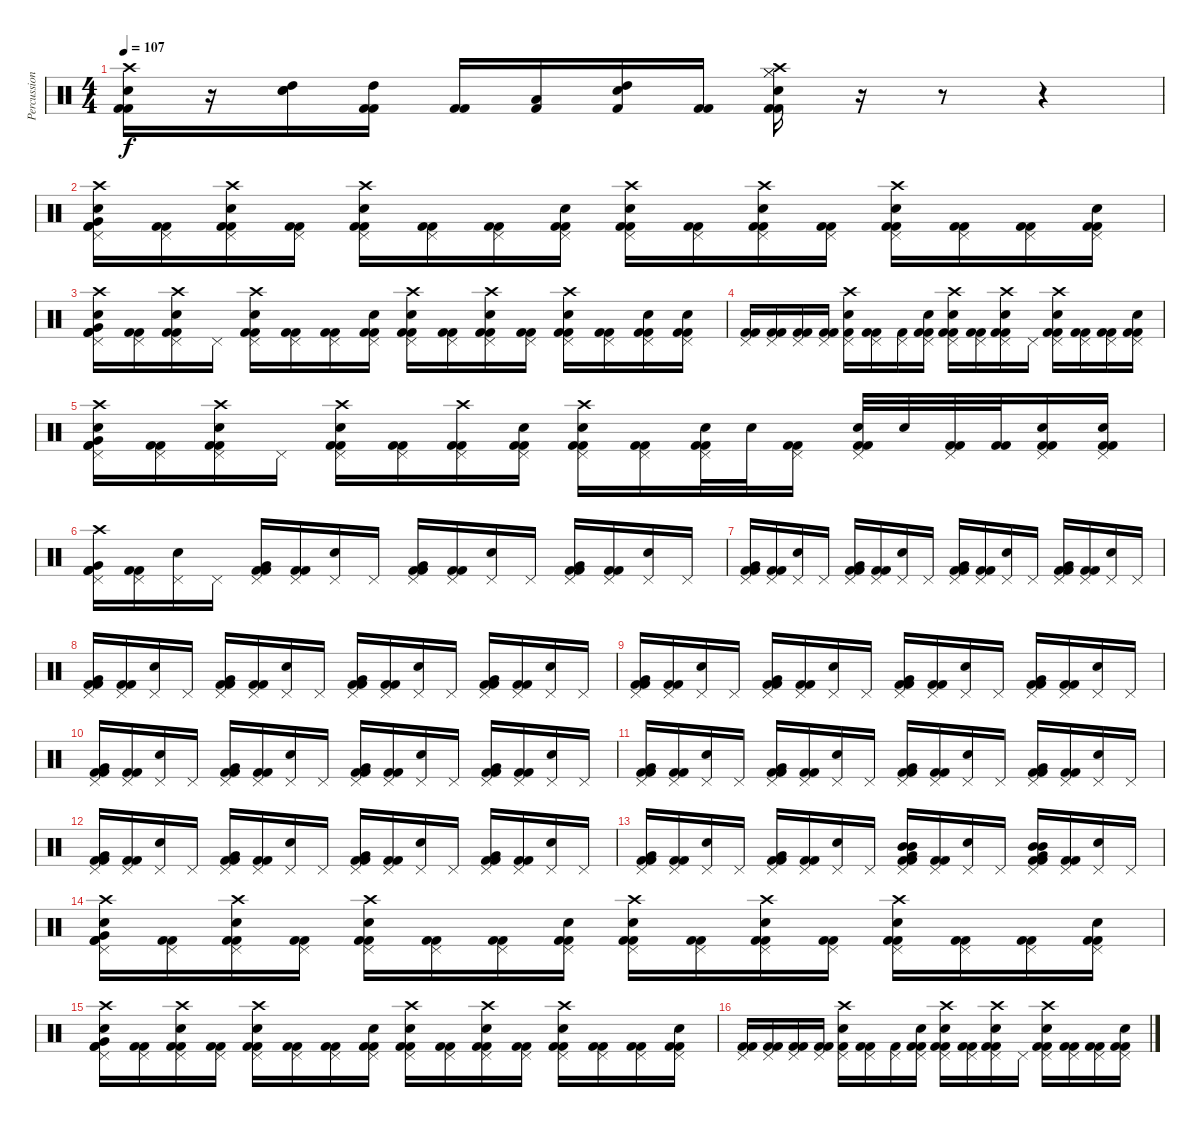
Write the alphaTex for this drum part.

\track ("Percussion" "Percussion") {instrument percussion}
\staff {score}
\articulation defaults
\ts (4 4)
\tempo 107
\clef neutral
\ks c
("Crash high (hit)" "Electric Snare (hit)" "Kick (hit) 2" "Kick (hit) 2").16{dy f} r.16 ("High Tom (hit)" "Electric Snare (hit)" "Electric Snare (hit)").16 ("High Tom (hit)" "Kick (hit) 2" "Kick (hit) 2").16 ("Kick (hit) 2" "Kick (hit) 2").16 ("Low Tom (hit)" "Kick (hit) 2").16 ("High Tom (hit)" "Electric Snare (hit)" "Kick (hit) 2").16 ("Kick (hit) 2" "Kick (hit) 2").16 ("Hi-Hat (closed)" "Hi-Hat (closed)" "Crash high (hit)" "Kick (hit) 2" "Electric Snare (hit)" "Kick (hit) 2").16 r.16 r.8 r.4 |
("Pedal Hi-Hat (hit)" "Crash high (hit)" "Very Low Tom (hit)" "Electric Snare (hit)" "Kick (hit) 2" "Kick (hit) 2").16 ("Pedal Hi-Hat (hit)" "Kick (hit) 2" "Kick (hit) 2").16 ("Pedal Hi-Hat (hit)" "Crash high (hit)" "Electric Snare (hit)" "Kick (hit) 2" "Kick (hit) 2").16 ("Pedal Hi-Hat (hit)" "Kick (hit) 2" "Kick (hit) 2").16 ("Pedal Hi-Hat (hit)" "Crash high (hit)" "Electric Snare (hit)" "Kick (hit) 2" "Kick (hit) 2").16 ("Pedal Hi-Hat (hit)" "Kick (hit) 2" "Kick (hit) 2").16 ("Pedal Hi-Hat (hit)" "Kick (hit) 2" "Kick (hit) 2").16 ("Pedal Hi-Hat (hit)" "Electric Snare (hit)" "Kick (hit) 2" "Kick (hit) 2").16 ("Pedal Hi-Hat (hit)" "Crash high (hit)" "Electric Snare (hit)" "Kick (hit) 2" "Kick (hit) 2").16 ("Pedal Hi-Hat (hit)" "Kick (hit) 2" "Kick (hit) 2").16 ("Pedal Hi-Hat (hit)" "Crash high (hit)" "Electric Snare (hit)" "Kick (hit) 2" "Kick (hit) 2").16 ("Pedal Hi-Hat (hit)" "Kick (hit) 2" "Kick (hit) 2").16 ("Pedal Hi-Hat (hit)" "Crash high (hit)" "Electric Snare (hit)" "Kick (hit) 2" "Kick (hit) 2").16 ("Pedal Hi-Hat (hit)" "Kick (hit) 2" "Kick (hit) 2").16 ("Pedal Hi-Hat (hit)" "Kick (hit) 2" "Kick (hit) 2").16 ("Pedal Hi-Hat (hit)" "Electric Snare (hit)" "Kick (hit) 2" "Kick (hit) 2").16 |
("Pedal Hi-Hat (hit)" "Crash high (hit)" "Very Low Tom (hit)" "Electric Snare (hit)" "Kick (hit) 2" "Kick (hit) 2").16 ("Pedal Hi-Hat (hit)" "Kick (hit) 2" "Kick (hit) 2").16 ("Pedal Hi-Hat (hit)" "Crash high (hit)" "Electric Snare (hit)" "Kick (hit) 2" "Kick (hit) 2").16 "Pedal Hi-Hat (hit)".16 ("Pedal Hi-Hat (hit)" "Crash high (hit)" "Electric Snare (hit)" "Kick (hit) 2" "Kick (hit) 2").16 ("Pedal Hi-Hat (hit)" "Kick (hit) 2" "Kick (hit) 2").16 ("Pedal Hi-Hat (hit)" "Kick (hit) 2" "Kick (hit) 2").16 ("Pedal Hi-Hat (hit)" "Electric Snare (hit)" "Kick (hit) 2" "Kick (hit) 2").16 ("Pedal Hi-Hat (hit)" "Crash high (hit)" "Electric Snare (hit)" "Kick (hit) 2" "Kick (hit) 2").16 ("Pedal Hi-Hat (hit)" "Kick (hit) 2" "Kick (hit) 2").16 ("Pedal Hi-Hat (hit)" "Crash high (hit)" "Electric Snare (hit)" "Kick (hit) 2" "Kick (hit) 2").16 ("Pedal Hi-Hat (hit)" "Kick (hit) 2" "Kick (hit) 2").16 ("Pedal Hi-Hat (hit)" "Crash high (hit)" "Electric Snare (hit)" "Kick (hit) 2" "Kick (hit) 2").16 ("Pedal Hi-Hat (hit)" "Kick (hit) 2" "Kick (hit) 2").16 ("Pedal Hi-Hat (hit)" "Electric Snare (hit)" "Kick (hit) 2" "Kick (hit) 2").16 ("Pedal Hi-Hat (hit)" "Electric Snare (hit)" "Kick (hit) 2" "Kick (hit) 2").16 |
("Pedal Hi-Hat (hit)" "Kick (hit) 2" "Kick (hit) 2").16 ("Pedal Hi-Hat (hit)" "Kick (hit) 2" "Kick (hit) 2").16 ("Pedal Hi-Hat (hit)" "Kick (hit) 2" "Kick (hit) 2").16 ("Pedal Hi-Hat (hit)" "Kick (hit) 2" "Kick (hit) 2").16 ("Pedal Hi-Hat (hit)" "Crash high (hit)" "Electric Snare (hit)" "Kick (hit) 2").16 ("Pedal Hi-Hat (hit)" "Kick (hit) 2" "Kick (hit) 2").16 ("Pedal Hi-Hat (hit)" "Kick (hit) 2").16 ("Pedal Hi-Hat (hit)" "Electric Snare (hit)" "Kick (hit) 2" "Kick (hit) 2").16 ("Pedal Hi-Hat (hit)" "Crash high (hit)" "Electric Snare (hit)" "Kick (hit) 2" "Kick (hit) 2").16 ("Pedal Hi-Hat (hit)" "Kick (hit) 2" "Kick (hit) 2").16 ("Pedal Hi-Hat (hit)" "Crash high (hit)" "Kick (hit) 2" "Electric Snare (hit)" "Kick (hit) 2").16 "Pedal Hi-Hat (hit)".16 ("Pedal Hi-Hat (hit)" "Crash high (hit)" "Kick (hit) 2" "Electric Snare (hit)" "Kick (hit) 2").16 ("Pedal Hi-Hat (hit)" "Kick (hit) 2" "Kick (hit) 2").16 ("Pedal Hi-Hat (hit)" "Kick (hit) 2" "Kick (hit) 2").16 ("Pedal Hi-Hat (hit)" "Kick (hit) 2" "Electric Snare (hit)" "Kick (hit) 2").16 |
("Pedal Hi-Hat (hit)" "Crash high (hit)" "Very Low Tom (hit)" "Electric Snare (hit)" "Kick (hit) 2" "Kick (hit) 2").16 ("Pedal Hi-Hat (hit)" "Kick (hit) 2" "Kick (hit) 2").16 ("Pedal Hi-Hat (hit)" "Crash high (hit)" "Electric Snare (hit)" "Kick (hit) 2" "Kick (hit) 2").16 "Pedal Hi-Hat (hit)".16 ("Pedal Hi-Hat (hit)" "Crash high (hit)" "Electric Snare (hit)" "Kick (hit) 2" "Kick (hit) 2").16 ("Pedal Hi-Hat (hit)" "Kick (hit) 2" "Kick (hit) 2").16 ("Pedal Hi-Hat (hit)" "Crash high (hit)" "Kick (hit) 2" "Kick (hit) 2").16 ("Pedal Hi-Hat (hit)" "Electric Snare (hit)" "Kick (hit) 2" "Kick (hit) 2").16 ("Pedal Hi-Hat (hit)" "Crash high (hit)" "Electric Snare (hit)" "Kick (hit) 2" "Kick (hit) 2").16 ("Pedal Hi-Hat (hit)" "Kick (hit) 2" "Kick (hit) 2").16 ("Pedal Hi-Hat (hit)" "Electric Snare (hit)" "Kick (hit) 2" "Kick (hit) 2").32 "Electric Snare (hit)".32 ("Pedal Hi-Hat (hit)" "Kick (hit) 2" "Kick (hit) 2").16 ("Pedal Hi-Hat (hit)" "Electric Snare (hit)" "Kick (hit) 2" "Kick (hit) 2").32 "Electric Snare (hit)".32 ("Pedal Hi-Hat (hit)" "Kick (hit) 2" "Kick (hit) 2").32 ("Kick (hit) 2" "Kick (hit) 2").32 ("Pedal Hi-Hat (hit)" "Electric Snare (hit)" "Kick (hit) 2" "Kick (hit) 2").16 ("Pedal Hi-Hat (hit)" "Electric Snare (hit)" "Kick (hit) 2" "Kick (hit) 2").16 |
("Pedal Hi-Hat (hit)" "Crash high (hit)" "Very Low Tom (hit)" "Kick (hit) 2" "Kick (hit) 2").16 ("Pedal Hi-Hat (hit)" "Kick (hit) 2" "Kick (hit) 2").16 ("Pedal Hi-Hat (hit)" "Electric Snare (hit)").16 "Pedal Hi-Hat (hit)".16 ("Pedal Hi-Hat (hit)" "Very Low Tom (hit)" "Kick (hit) 2" "Kick (hit) 2").16 ("Pedal Hi-Hat (hit)" "Kick (hit) 2" "Kick (hit) 2").16 ("Pedal Hi-Hat (hit)" "Electric Snare (hit)").16 "Pedal Hi-Hat (hit)".16 ("Pedal Hi-Hat (hit)" "Very Low Tom (hit)" "Kick (hit) 2" "Kick (hit) 2").16 ("Pedal Hi-Hat (hit)" "Kick (hit) 2" "Kick (hit) 2").16 ("Pedal Hi-Hat (hit)" "Electric Snare (hit)").16 "Pedal Hi-Hat (hit)".16 ("Pedal Hi-Hat (hit)" "Very Low Tom (hit)" "Kick (hit) 2" "Kick (hit) 2").16 ("Pedal Hi-Hat (hit)" "Kick (hit) 2" "Kick (hit) 2").16 ("Pedal Hi-Hat (hit)" "Electric Snare (hit)").16 "Pedal Hi-Hat (hit)".16 |
("Pedal Hi-Hat (hit)" "Very Low Tom (hit)" "Kick (hit) 2" "Kick (hit) 2").16 ("Pedal Hi-Hat (hit)" "Kick (hit) 2" "Kick (hit) 2").16 ("Pedal Hi-Hat (hit)" "Electric Snare (hit)").16 "Pedal Hi-Hat (hit)".16 ("Pedal Hi-Hat (hit)" "Very Low Tom (hit)" "Kick (hit) 2" "Kick (hit) 2").16 ("Pedal Hi-Hat (hit)" "Kick (hit) 2" "Kick (hit) 2").16 ("Pedal Hi-Hat (hit)" "Electric Snare (hit)").16 "Pedal Hi-Hat (hit)".16 ("Pedal Hi-Hat (hit)" "Very Low Tom (hit)" "Kick (hit) 2" "Kick (hit) 2").16 ("Pedal Hi-Hat (hit)" "Kick (hit) 2" "Kick (hit) 2").16 ("Pedal Hi-Hat (hit)" "Electric Snare (hit)").16 "Pedal Hi-Hat (hit)".16 ("Pedal Hi-Hat (hit)" "Very Low Tom (hit)" "Kick (hit) 2" "Kick (hit) 2").16 ("Pedal Hi-Hat (hit)" "Kick (hit) 2" "Kick (hit) 2").16 ("Pedal Hi-Hat (hit)" "Electric Snare (hit)").16 "Pedal Hi-Hat (hit)".16 |
("Pedal Hi-Hat (hit)" "Very Low Tom (hit)" "Kick (hit) 2" "Kick (hit) 2").16 ("Pedal Hi-Hat (hit)" "Kick (hit) 2" "Kick (hit) 2").16 ("Pedal Hi-Hat (hit)" "Electric Snare (hit)").16 "Pedal Hi-Hat (hit)".16 ("Pedal Hi-Hat (hit)" "Very Low Tom (hit)" "Kick (hit) 2" "Kick (hit) 2").16 ("Pedal Hi-Hat (hit)" "Kick (hit) 2" "Kick (hit) 2").16 ("Pedal Hi-Hat (hit)" "Electric Snare (hit)").16 "Pedal Hi-Hat (hit)".16 ("Pedal Hi-Hat (hit)" "Very Low Tom (hit)" "Kick (hit) 2" "Kick (hit) 2").16 ("Pedal Hi-Hat (hit)" "Kick (hit) 2" "Kick (hit) 2").16 ("Pedal Hi-Hat (hit)" "Electric Snare (hit)").16 "Pedal Hi-Hat (hit)".16 ("Pedal Hi-Hat (hit)" "Very Low Tom (hit)" "Kick (hit) 2" "Kick (hit) 2").16 ("Pedal Hi-Hat (hit)" "Kick (hit) 2" "Kick (hit) 2").16 ("Pedal Hi-Hat (hit)" "Electric Snare (hit)").16 "Pedal Hi-Hat (hit)".16 |
("Pedal Hi-Hat (hit)" "Very Low Tom (hit)" "Kick (hit) 2" "Kick (hit) 2").16 ("Pedal Hi-Hat (hit)" "Kick (hit) 2" "Kick (hit) 2").16 ("Pedal Hi-Hat (hit)" "Electric Snare (hit)").16 "Pedal Hi-Hat (hit)".16 ("Pedal Hi-Hat (hit)" "Very Low Tom (hit)" "Kick (hit) 2" "Kick (hit) 2").16 ("Pedal Hi-Hat (hit)" "Kick (hit) 2" "Kick (hit) 2").16 ("Pedal Hi-Hat (hit)" "Electric Snare (hit)").16 "Pedal Hi-Hat (hit)".16 ("Pedal Hi-Hat (hit)" "Very Low Tom (hit)" "Kick (hit) 2" "Kick (hit) 2").16 ("Pedal Hi-Hat (hit)" "Kick (hit) 2" "Kick (hit) 2").16 ("Pedal Hi-Hat (hit)" "Electric Snare (hit)").16 "Pedal Hi-Hat (hit)".16 ("Pedal Hi-Hat (hit)" "Very Low Tom (hit)" "Kick (hit) 2" "Kick (hit) 2").16 ("Pedal Hi-Hat (hit)" "Kick (hit) 2" "Kick (hit) 2").16 ("Pedal Hi-Hat (hit)" "Electric Snare (hit)").16 "Pedal Hi-Hat (hit)".16 |
("Pedal Hi-Hat (hit)" "Very Low Tom (hit)" "Kick (hit) 2" "Kick (hit) 2").16 ("Pedal Hi-Hat (hit)" "Kick (hit) 2" "Kick (hit) 2").16 ("Pedal Hi-Hat (hit)" "Electric Snare (hit)").16 "Pedal Hi-Hat (hit)".16 ("Pedal Hi-Hat (hit)" "Very Low Tom (hit)" "Kick (hit) 2" "Kick (hit) 2").16 ("Pedal Hi-Hat (hit)" "Kick (hit) 2" "Kick (hit) 2").16 ("Pedal Hi-Hat (hit)" "Electric Snare (hit)").16 "Pedal Hi-Hat (hit)".16 ("Pedal Hi-Hat (hit)" "Very Low Tom (hit)" "Kick (hit) 2" "Kick (hit) 2").16 ("Pedal Hi-Hat (hit)" "Kick (hit) 2" "Kick (hit) 2").16 ("Pedal Hi-Hat (hit)" "Electric Snare (hit)").16 "Pedal Hi-Hat (hit)".16 ("Pedal Hi-Hat (hit)" "Very Low Tom (hit)" "Kick (hit) 2" "Kick (hit) 2").16 ("Pedal Hi-Hat (hit)" "Kick (hit) 2" "Kick (hit) 2").16 ("Pedal Hi-Hat (hit)" "Electric Snare (hit)").16 "Pedal Hi-Hat (hit)".16 |
("Pedal Hi-Hat (hit)" "Very Low Tom (hit)" "Kick (hit) 2" "Kick (hit) 2").16 ("Pedal Hi-Hat (hit)" "Kick (hit) 2" "Kick (hit) 2").16 ("Pedal Hi-Hat (hit)" "Electric Snare (hit)").16 "Pedal Hi-Hat (hit)".16 ("Pedal Hi-Hat (hit)" "Very Low Tom (hit)" "Kick (hit) 2" "Kick (hit) 2").16 ("Pedal Hi-Hat (hit)" "Kick (hit) 2" "Kick (hit) 2").16 ("Pedal Hi-Hat (hit)" "Electric Snare (hit)").16 "Pedal Hi-Hat (hit)".16 ("Pedal Hi-Hat (hit)" "Very Low Tom (hit)" "Kick (hit) 2" "Kick (hit) 2").16 ("Pedal Hi-Hat (hit)" "Kick (hit) 2" "Kick (hit) 2").16 ("Pedal Hi-Hat (hit)" "Electric Snare (hit)").16 "Pedal Hi-Hat (hit)".16 ("Pedal Hi-Hat (hit)" "Very Low Tom (hit)" "Kick (hit) 2" "Kick (hit) 2").16 ("Pedal Hi-Hat (hit)" "Kick (hit) 2" "Kick (hit) 2").16 ("Pedal Hi-Hat (hit)" "Electric Snare (hit)").16 "Pedal Hi-Hat (hit)".16 |
("Pedal Hi-Hat (hit)" "Very Low Tom (hit)" "Kick (hit) 2" "Kick (hit) 2").16 ("Pedal Hi-Hat (hit)" "Kick (hit) 2" "Kick (hit) 2").16 ("Pedal Hi-Hat (hit)" "Electric Snare (hit)").16 "Pedal Hi-Hat (hit)".16 ("Pedal Hi-Hat (hit)" "Very Low Tom (hit)" "Kick (hit) 2" "Kick (hit) 2").16 ("Pedal Hi-Hat (hit)" "Kick (hit) 2" "Kick (hit) 2").16 ("Pedal Hi-Hat (hit)" "Electric Snare (hit)").16 "Pedal Hi-Hat (hit)".16 ("Pedal Hi-Hat (hit)" "Very Low Tom (hit)" "Kick (hit) 2" "Kick (hit) 2").16 ("Pedal Hi-Hat (hit)" "Kick (hit) 2" "Kick (hit) 2").16 ("Pedal Hi-Hat (hit)" "Electric Snare (hit)").16 "Pedal Hi-Hat (hit)".16 ("Pedal Hi-Hat (hit)" "Very Low Tom (hit)" "Kick (hit) 2" "Kick (hit) 2").16 ("Pedal Hi-Hat (hit)" "Kick (hit) 2" "Kick (hit) 2").16 ("Pedal Hi-Hat (hit)" "Electric Snare (hit)").16 "Pedal Hi-Hat (hit)".16 |
("Pedal Hi-Hat (hit)" "Very Low Tom (hit)" "Kick (hit) 2" "Kick (hit) 2").16 ("Pedal Hi-Hat (hit)" "Kick (hit) 2" "Kick (hit) 2").16 ("Pedal Hi-Hat (hit)" "Electric Snare (hit)").16 "Pedal Hi-Hat (hit)".16 ("Pedal Hi-Hat (hit)" "Very Low Tom (hit)" "Kick (hit) 2" "Kick (hit) 2").16 ("Pedal Hi-Hat (hit)" "Kick (hit) 2" "Kick (hit) 2").16 ("Pedal Hi-Hat (hit)" "Electric Snare (hit)").16 "Pedal Hi-Hat (hit)".16 ("Pedal Hi-Hat (hit)" "Mid Tom (hit)" "Very Low Tom (hit)" "Kick (hit) 2" "Kick (hit) 2" "Mid Tom (hit)").16 ("Pedal Hi-Hat (hit)" "Kick (hit) 2" "Kick (hit) 2").16 ("Pedal Hi-Hat (hit)" "Electric Snare (hit)").16 "Pedal Hi-Hat (hit)".16 ("Pedal Hi-Hat (hit)" "Mid Tom (hit)" "Very Low Tom (hit)" "Kick (hit) 2" "Kick (hit) 2" "Mid Tom (hit)").16 ("Pedal Hi-Hat (hit)" "Kick (hit) 2" "Kick (hit) 2").16 ("Pedal Hi-Hat (hit)" "Electric Snare (hit)").16 "Pedal Hi-Hat (hit)".16 |
("Pedal Hi-Hat (hit)" "Crash high (hit)" "Very Low Tom (hit)" "Electric Snare (hit)" "Kick (hit) 2" "Kick (hit) 2").16 ("Pedal Hi-Hat (hit)" "Kick (hit) 2" "Kick (hit) 2").16 ("Pedal Hi-Hat (hit)" "Crash high (hit)" "Electric Snare (hit)" "Kick (hit) 2" "Kick (hit) 2").16 ("Pedal Hi-Hat (hit)" "Kick (hit) 2" "Kick (hit) 2").16 ("Pedal Hi-Hat (hit)" "Crash high (hit)" "Electric Snare (hit)" "Kick (hit) 2" "Kick (hit) 2").16 ("Pedal Hi-Hat (hit)" "Kick (hit) 2" "Kick (hit) 2").16 ("Pedal Hi-Hat (hit)" "Kick (hit) 2" "Kick (hit) 2").16 ("Pedal Hi-Hat (hit)" "Electric Snare (hit)" "Kick (hit) 2" "Kick (hit) 2").16 ("Pedal Hi-Hat (hit)" "Crash high (hit)" "Electric Snare (hit)" "Kick (hit) 2" "Kick (hit) 2").16 ("Pedal Hi-Hat (hit)" "Kick (hit) 2" "Kick (hit) 2").16 ("Pedal Hi-Hat (hit)" "Crash high (hit)" "Electric Snare (hit)" "Kick (hit) 2" "Kick (hit) 2").16 ("Pedal Hi-Hat (hit)" "Kick (hit) 2" "Kick (hit) 2").16 ("Pedal Hi-Hat (hit)" "Crash high (hit)" "Electric Snare (hit)" "Kick (hit) 2" "Kick (hit) 2").16 ("Pedal Hi-Hat (hit)" "Kick (hit) 2" "Kick (hit) 2").16 ("Pedal Hi-Hat (hit)" "Kick (hit) 2" "Kick (hit) 2").16 ("Pedal Hi-Hat (hit)" "Electric Snare (hit)" "Kick (hit) 2" "Kick (hit) 2").16 |
("Pedal Hi-Hat (hit)" "Crash high (hit)" "Very Low Tom (hit)" "Electric Snare (hit)" "Kick (hit) 2" "Kick (hit) 2").16 ("Pedal Hi-Hat (hit)" "Kick (hit) 2" "Kick (hit) 2").16 ("Pedal Hi-Hat (hit)" "Crash high (hit)" "Electric Snare (hit)" "Kick (hit) 2" "Kick (hit) 2").16 ("Pedal Hi-Hat (hit)" "Kick (hit) 2" "Kick (hit) 2").16 ("Pedal Hi-Hat (hit)" "Crash high (hit)" "Electric Snare (hit)" "Kick (hit) 2" "Kick (hit) 2").16 ("Pedal Hi-Hat (hit)" "Kick (hit) 2" "Kick (hit) 2").16 ("Pedal Hi-Hat (hit)" "Kick (hit) 2" "Kick (hit) 2").16 ("Pedal Hi-Hat (hit)" "Electric Snare (hit)" "Kick (hit) 2" "Kick (hit) 2").16 ("Pedal Hi-Hat (hit)" "Crash high (hit)" "Electric Snare (hit)" "Kick (hit) 2" "Kick (hit) 2").16 ("Pedal Hi-Hat (hit)" "Kick (hit) 2" "Kick (hit) 2").16 ("Pedal Hi-Hat (hit)" "Crash high (hit)" "Electric Snare (hit)" "Kick (hit) 2" "Kick (hit) 2").16 ("Pedal Hi-Hat (hit)" "Kick (hit) 2" "Kick (hit) 2").16 ("Pedal Hi-Hat (hit)" "Crash high (hit)" "Electric Snare (hit)" "Kick (hit) 2" "Kick (hit) 2").16 ("Pedal Hi-Hat (hit)" "Kick (hit) 2" "Kick (hit) 2").16 ("Pedal Hi-Hat (hit)" "Kick (hit) 2" "Kick (hit) 2").16 ("Pedal Hi-Hat (hit)" "Electric Snare (hit)" "Kick (hit) 2" "Kick (hit) 2").16 |
("Pedal Hi-Hat (hit)" "Kick (hit) 2" "Kick (hit) 2").16 ("Pedal Hi-Hat (hit)" "Kick (hit) 2" "Kick (hit) 2").16 ("Pedal Hi-Hat (hit)" "Kick (hit) 2" "Kick (hit) 2").16 ("Pedal Hi-Hat (hit)" "Kick (hit) 2" "Kick (hit) 2").16 ("Pedal Hi-Hat (hit)" "Crash high (hit)" "Electric Snare (hit)" "Kick (hit) 2").16 ("Pedal Hi-Hat (hit)" "Kick (hit) 2" "Kick (hit) 2").16 ("Pedal Hi-Hat (hit)" "Kick (hit) 2").16 ("Pedal Hi-Hat (hit)" "Electric Snare (hit)" "Kick (hit) 2" "Kick (hit) 2").16 ("Pedal Hi-Hat (hit)" "Crash high (hit)" "Electric Snare (hit)" "Kick (hit) 2" "Kick (hit) 2").16 ("Pedal Hi-Hat (hit)" "Kick (hit) 2" "Kick (hit) 2").16 ("Pedal Hi-Hat (hit)" "Crash high (hit)" "Kick (hit) 2" "Electric Snare (hit)" "Kick (hit) 2").16 "Pedal Hi-Hat (hit)".16 ("Pedal Hi-Hat (hit)" "Crash high (hit)" "Kick (hit) 2" "Electric Snare (hit)" "Kick (hit) 2").16 ("Pedal Hi-Hat (hit)" "Kick (hit) 2" "Kick (hit) 2").16 ("Pedal Hi-Hat (hit)" "Kick (hit) 2" "Kick (hit) 2").16 ("Pedal Hi-Hat (hit)" "Kick (hit) 2" "Electric Snare (hit)" "Kick (hit) 2").16
